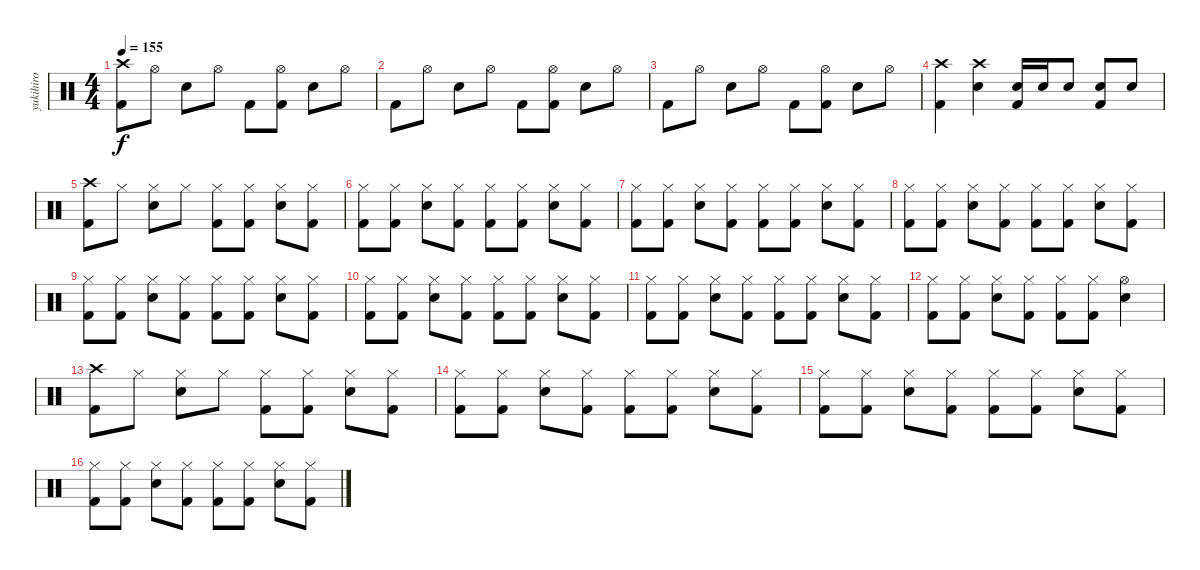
\track ("yukihiro" "yukihiro") {instrument percussion}
\staff {score}
\articulation defaults
\ts (4 4)
\tempo 155
\clef neutral
\ks c
("Crash high (hit)" "Kick (hit) 2").8{dy f} "Hi-Hat (open)".8 "Snare (hit) 2".8 "Hi-Hat (open)".8 "Kick (hit) 2".8 ("Hi-Hat (open)" "Kick (hit) 2").8 "Snare (hit) 2".8 "Hi-Hat (open)".8 |
"Kick (hit) 2".8 "Hi-Hat (open)".8 "Snare (hit) 2".8 "Hi-Hat (open)".8 "Kick (hit) 2".8 ("Hi-Hat (open)" "Kick (hit) 2").8 "Snare (hit) 2".8 "Hi-Hat (open)".8 |
"Kick (hit) 2".8 "Hi-Hat (open)".8 "Snare (hit) 2".8 "Hi-Hat (open)".8 "Kick (hit) 2".8 ("Hi-Hat (open)" "Kick (hit) 2").8 "Snare (hit) 2".8 "Hi-Hat (open)".8 |
("Crash high (hit)" "Kick (hit) 2").4 ("Crash high (hit)" "Snare (hit) 2").4 ("Snare (hit) 2" "Kick (hit) 2").16 "Snare (hit) 2".16 "Snare (hit) 2".8 ("Snare (hit) 2" "Kick (hit) 2").8 "Snare (hit) 2".8 |
("Crash high (hit)" "Kick (hit) 2").8 "Hi-Hat (closed)".8 ("Hi-Hat (closed)" "Snare (hit) 2").8 "Hi-Hat (closed)".8 ("Hi-Hat (closed)" "Kick (hit) 2").8 ("Hi-Hat (closed)" "Kick (hit) 2").8 ("Hi-Hat (closed)" "Snare (hit) 2").8 ("Hi-Hat (closed)" "Kick (hit) 2").8 |
("Hi-Hat (closed)" "Kick (hit) 2").8 ("Hi-Hat (closed)" "Kick (hit) 2").8 ("Hi-Hat (closed)" "Snare (hit) 2").8 ("Hi-Hat (closed)" "Kick (hit) 2").8 ("Hi-Hat (closed)" "Kick (hit) 2").8 ("Hi-Hat (closed)" "Kick (hit) 2").8 ("Hi-Hat (closed)" "Snare (hit) 2").8 ("Hi-Hat (closed)" "Kick (hit) 2").8 |
("Hi-Hat (closed)" "Kick (hit) 2").8 ("Hi-Hat (closed)" "Kick (hit) 2").8 ("Hi-Hat (closed)" "Snare (hit) 2").8 ("Hi-Hat (closed)" "Kick (hit) 2").8 ("Hi-Hat (closed)" "Kick (hit) 2").8 ("Hi-Hat (closed)" "Kick (hit) 2").8 ("Hi-Hat (closed)" "Snare (hit) 2").8 ("Hi-Hat (closed)" "Kick (hit) 2").8 |
("Hi-Hat (closed)" "Kick (hit) 2").8 ("Hi-Hat (closed)" "Kick (hit) 2").8 ("Hi-Hat (closed)" "Snare (hit) 2").8 ("Hi-Hat (closed)" "Kick (hit) 2").8 ("Hi-Hat (closed)" "Kick (hit) 2").8 ("Hi-Hat (closed)" "Kick (hit) 2").8 ("Hi-Hat (closed)" "Snare (hit) 2").8 ("Hi-Hat (closed)" "Kick (hit) 2").8 |
("Hi-Hat (closed)" "Kick (hit) 2").8 ("Hi-Hat (closed)" "Kick (hit) 2").8 ("Hi-Hat (closed)" "Snare (hit) 2").8 ("Hi-Hat (closed)" "Kick (hit) 2").8 ("Hi-Hat (closed)" "Kick (hit) 2").8 ("Hi-Hat (closed)" "Kick (hit) 2").8 ("Hi-Hat (closed)" "Snare (hit) 2").8 ("Hi-Hat (closed)" "Kick (hit) 2").8 |
("Hi-Hat (closed)" "Kick (hit) 2").8 ("Hi-Hat (closed)" "Kick (hit) 2").8 ("Hi-Hat (closed)" "Snare (hit) 2").8 ("Hi-Hat (closed)" "Kick (hit) 2").8 ("Hi-Hat (closed)" "Kick (hit) 2").8 ("Hi-Hat (closed)" "Kick (hit) 2").8 ("Hi-Hat (closed)" "Snare (hit) 2").8 ("Hi-Hat (closed)" "Kick (hit) 2").8 |
("Hi-Hat (closed)" "Kick (hit) 2").8 ("Hi-Hat (closed)" "Kick (hit) 2").8 ("Hi-Hat (closed)" "Snare (hit) 2").8 ("Hi-Hat (closed)" "Kick (hit) 2").8 ("Hi-Hat (closed)" "Kick (hit) 2").8 ("Hi-Hat (closed)" "Kick (hit) 2").8 ("Hi-Hat (closed)" "Snare (hit) 2").8 ("Hi-Hat (closed)" "Kick (hit) 2").8 |
("Hi-Hat (closed)" "Kick (hit) 2").8 ("Hi-Hat (closed)" "Kick (hit) 2").8 ("Hi-Hat (closed)" "Snare (hit) 2").8 ("Hi-Hat (closed)" "Kick (hit) 2").8 ("Hi-Hat (closed)" "Kick (hit) 2").8 ("Hi-Hat (closed)" "Kick (hit) 2").8 ("Hi-Hat (open)" "Snare (hit) 2").4 |
("Crash high (hit)" "Kick (hit) 2").8 "Hi-Hat (closed)".8 ("Hi-Hat (closed)" "Snare (hit) 2").8 "Hi-Hat (closed)".8 ("Hi-Hat (closed)" "Kick (hit) 2").8 ("Hi-Hat (closed)" "Kick (hit) 2").8 ("Hi-Hat (closed)" "Snare (hit) 2").8 ("Hi-Hat (closed)" "Kick (hit) 2").8 |
("Hi-Hat (closed)" "Kick (hit) 2").8 ("Hi-Hat (closed)" "Kick (hit) 2").8 ("Hi-Hat (closed)" "Snare (hit) 2").8 ("Hi-Hat (closed)" "Kick (hit) 2").8 ("Hi-Hat (closed)" "Kick (hit) 2").8 ("Hi-Hat (closed)" "Kick (hit) 2").8 ("Hi-Hat (closed)" "Snare (hit) 2").8 ("Hi-Hat (closed)" "Kick (hit) 2").8 |
("Hi-Hat (closed)" "Kick (hit) 2").8 ("Hi-Hat (closed)" "Kick (hit) 2").8 ("Hi-Hat (closed)" "Snare (hit) 2").8 ("Hi-Hat (closed)" "Kick (hit) 2").8 ("Hi-Hat (closed)" "Kick (hit) 2").8 ("Hi-Hat (closed)" "Kick (hit) 2").8 ("Hi-Hat (closed)" "Snare (hit) 2").8 ("Hi-Hat (closed)" "Kick (hit) 2").8 |
("Hi-Hat (closed)" "Kick (hit) 2").8 ("Hi-Hat (closed)" "Kick (hit) 2").8 ("Hi-Hat (closed)" "Snare (hit) 2").8 ("Hi-Hat (closed)" "Kick (hit) 2").8 ("Hi-Hat (closed)" "Kick (hit) 2").8 ("Hi-Hat (closed)" "Kick (hit) 2").8 ("Hi-Hat (closed)" "Snare (hit) 2").8 ("Hi-Hat (closed)" "Kick (hit) 2").8
